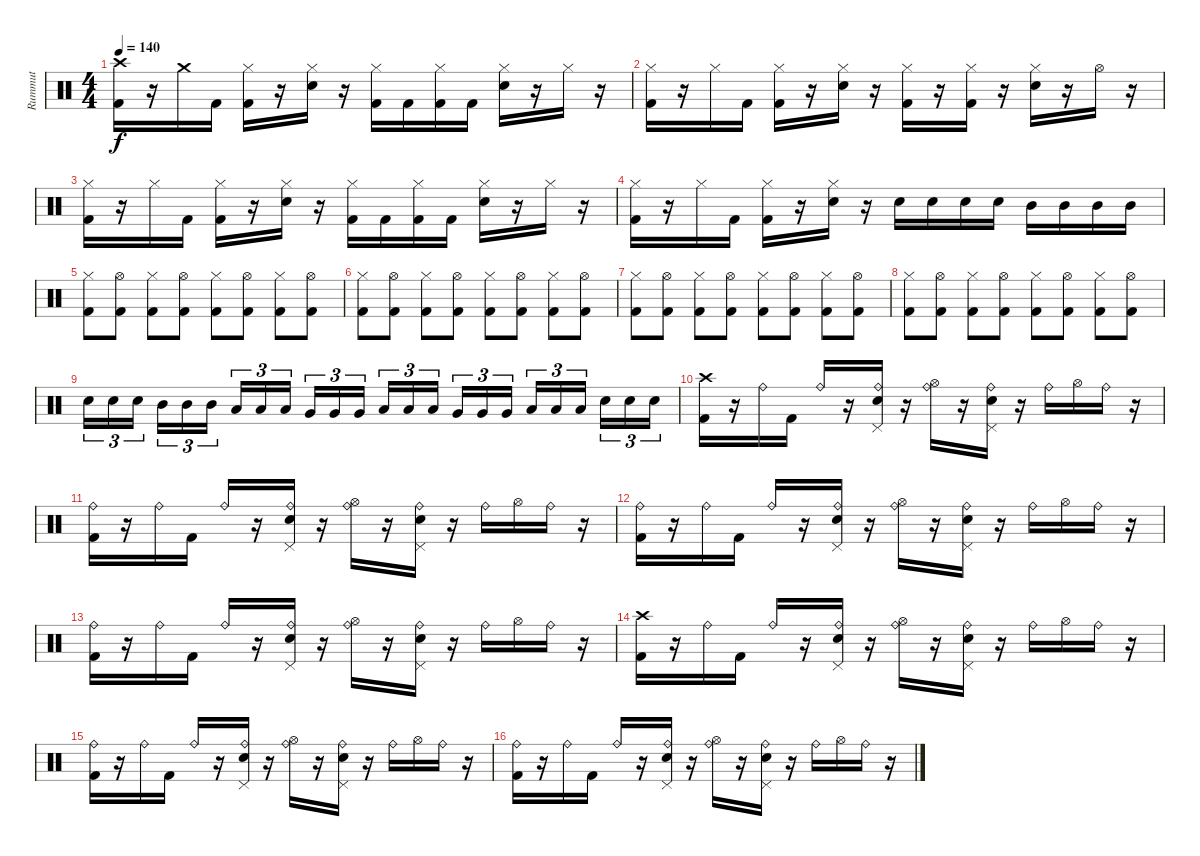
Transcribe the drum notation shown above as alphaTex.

\track ("Rummut" "Rummut") {instrument percussion}
\staff {score}
\articulation defaults
\ts (4 4)
\tempo 140
\clef neutral
\ks c
("Crash high (hit)" "Kick (hit) 2").16{dy f} r.16 "Crash medium (hit)".16 "Kick (hit) 2".16 ("Hi-Hat (closed)" "Kick (hit) 2").16 r.16 ("Hi-Hat (closed)" "Snare (hit) 2").16 r.16 ("Hi-Hat (closed)" "Kick (hit) 2").16 "Kick (hit) 2".16 ("Hi-Hat (closed)" "Kick (hit) 2").16 "Kick (hit) 2".16 ("Hi-Hat (closed)" "Snare (hit) 2").16 r.16 "Hi-Hat (closed)".16 r.16 |
("Hi-Hat (closed)" "Kick (hit) 2").16 r.16 "Hi-Hat (closed)".16 "Kick (hit) 2".16 ("Hi-Hat (closed)" "Kick (hit) 2").16 r.16 ("Hi-Hat (closed)" "Snare (hit) 2").16 r.16 ("Hi-Hat (closed)" "Kick (hit) 2").16 r.16 ("Hi-Hat (closed)" "Kick (hit) 2").16 r.16 ("Hi-Hat (closed)" "Snare (hit) 2").16 r.16 "Hi-Hat (open)".16 r.16 |
("Hi-Hat (closed)" "Kick (hit) 2").16 r.16 "Hi-Hat (closed)".16 "Kick (hit) 2".16 ("Hi-Hat (closed)" "Kick (hit) 2").16 r.16 ("Hi-Hat (closed)" "Snare (hit) 2").16 r.16 ("Hi-Hat (closed)" "Kick (hit) 2").16 "Kick (hit) 2".16 ("Hi-Hat (closed)" "Kick (hit) 2").16 "Kick (hit) 2".16 ("Hi-Hat (closed)" "Snare (hit) 2").16 r.16 "Hi-Hat (closed)".16 r.16 |
("Hi-Hat (closed)" "Kick (hit) 2").16 r.16 "Hi-Hat (closed)".16 "Kick (hit) 2".16 ("Hi-Hat (closed)" "Kick (hit) 2").16 r.16 ("Hi-Hat (closed)" "Snare (hit) 2").16 r.16 "Snare (hit) 2".16 "Snare (hit) 2".16 "Snare (hit) 2".16 "Snare (hit) 2".16 "Mid Tom (hit)".16 "Mid Tom (hit)".16 "Mid Tom (hit)".16 "Mid Tom (hit)".16 |
("Hi-Hat (closed)" "Kick (hit) 2").8 ("Hi-Hat (open)" "Kick (hit) 2").8 ("Hi-Hat (closed)" "Kick (hit) 2").8 ("Hi-Hat (open)" "Kick (hit) 2").8 ("Hi-Hat (closed)" "Kick (hit) 2").8 ("Hi-Hat (open)" "Kick (hit) 2").8 ("Hi-Hat (closed)" "Kick (hit) 2").8 ("Hi-Hat (open)" "Kick (hit) 2").8 |
("Hi-Hat (closed)" "Kick (hit) 2").8 ("Hi-Hat (open)" "Kick (hit) 2").8 ("Hi-Hat (closed)" "Kick (hit) 2").8 ("Hi-Hat (open)" "Kick (hit) 2").8 ("Hi-Hat (closed)" "Kick (hit) 2").8 ("Hi-Hat (open)" "Kick (hit) 2").8 ("Hi-Hat (closed)" "Kick (hit) 2").8 ("Hi-Hat (open)" "Kick (hit) 2").8 |
("Hi-Hat (closed)" "Kick (hit) 2").8 ("Hi-Hat (open)" "Kick (hit) 2").8 ("Hi-Hat (closed)" "Kick (hit) 2").8 ("Hi-Hat (open)" "Kick (hit) 2").8 ("Hi-Hat (closed)" "Kick (hit) 2").8 ("Hi-Hat (open)" "Kick (hit) 2").8 ("Hi-Hat (closed)" "Kick (hit) 2").8 ("Hi-Hat (open)" "Kick (hit) 2").8 |
("Hi-Hat (closed)" "Kick (hit) 2").8 ("Hi-Hat (open)" "Kick (hit) 2").8 ("Hi-Hat (closed)" "Kick (hit) 2").8 ("Hi-Hat (open)" "Kick (hit) 2").8 ("Hi-Hat (closed)" "Kick (hit) 2").8 ("Hi-Hat (open)" "Kick (hit) 2").8 ("Hi-Hat (closed)" "Kick (hit) 2").8 ("Hi-Hat (open)" "Kick (hit) 2").8 |
"Snare (hit) 2".16{tu (3 2)} "Snare (hit) 2".16{tu (3 2)} "Snare (hit) 2".16{tu (3 2)} "Mid Tom (hit)".16{tu (3 2)} "Mid Tom (hit)".16{tu (3 2)} "Mid Tom (hit)".16{tu (3 2)} "Low Tom (hit)".16{tu (3 2)} "Low Tom (hit)".16{tu (3 2)} "Low Tom (hit)".16{tu (3 2)} "Very Low Tom (hit)".16{tu (3 2)} "Very Low Tom (hit)".16{tu (3 2)} "Very Low Tom (hit)".16{tu (3 2)} "Low Floor Tom (hit)".16{tu (3 2)} "Low Floor Tom (hit)".16{tu (3 2)} "Low Floor Tom (hit)".16{tu (3 2)} "Very Low Tom (hit)".16{tu (3 2)} "Very Low Tom (hit)".16{tu (3 2)} "Very Low Tom (hit)".16{tu (3 2)} "Low Floor Tom (hit)".16{tu (3 2)} "Low Floor Tom (hit)".16{tu (3 2)} "Low Floor Tom (hit)".16{tu (3 2)} "Snare (hit) 2".16{tu (3 2)} "Snare (hit) 2".16{tu (3 2)} "Snare (hit) 2".16{tu (3 2)} |
("Crash high (hit)" "Kick (hit) 2").16 r.16 "Ride (bell)".16 "Kick (hit) 2".16 "Ride (bell)".16 r.16 ("Ride (bell)" "Snare (hit) 2" "Pedal Hi-Hat (hit)").16 r.16 ("Ride (bell)" "Hi-Hat (open)").16 r.16 ("Ride (bell)" "Snare (hit) 2" "Pedal Hi-Hat (hit)").16 r.16 "Ride (bell)".16 "Hi-Hat (open)".16 "Ride (bell)".16 r.16 |
("Ride (bell)" "Kick (hit) 2").16 r.16 "Ride (bell)".16 "Kick (hit) 2".16 "Ride (bell)".16 r.16 ("Ride (bell)" "Snare (hit) 2" "Pedal Hi-Hat (hit)").16 r.16 ("Ride (bell)" "Hi-Hat (open)").16 r.16 ("Ride (bell)" "Snare (hit) 2" "Pedal Hi-Hat (hit)").16 r.16 "Ride (bell)".16 "Hi-Hat (open)".16 "Ride (bell)".16 r.16 |
("Ride (bell)" "Kick (hit) 2").16 r.16 "Ride (bell)".16 "Kick (hit) 2".16 "Ride (bell)".16 r.16 ("Ride (bell)" "Snare (hit) 2" "Pedal Hi-Hat (hit)").16 r.16 ("Ride (bell)" "Hi-Hat (open)").16 r.16 ("Ride (bell)" "Snare (hit) 2" "Pedal Hi-Hat (hit)").16 r.16 "Ride (bell)".16 "Hi-Hat (open)".16 "Ride (bell)".16 r.16 |
("Ride (bell)" "Kick (hit) 2").16 r.16 "Ride (bell)".16 "Kick (hit) 2".16 "Ride (bell)".16 r.16 ("Ride (bell)" "Snare (hit) 2" "Pedal Hi-Hat (hit)").16 r.16 ("Ride (bell)" "Hi-Hat (open)").16 r.16 ("Ride (bell)" "Snare (hit) 2" "Pedal Hi-Hat (hit)").16 r.16 "Ride (bell)".16 "Hi-Hat (open)".16 "Ride (bell)".16 r.16 |
("Crash high (hit)" "Kick (hit) 2").16 r.16 "Ride (bell)".16 "Kick (hit) 2".16 "Ride (bell)".16 r.16 ("Ride (bell)" "Snare (hit) 2" "Pedal Hi-Hat (hit)").16 r.16 ("Ride (bell)" "Hi-Hat (open)").16 r.16 ("Ride (bell)" "Snare (hit) 2" "Pedal Hi-Hat (hit)").16 r.16 "Ride (bell)".16 "Hi-Hat (open)".16 "Ride (bell)".16 r.16 |
("Ride (bell)" "Kick (hit) 2").16 r.16 "Ride (bell)".16 "Kick (hit) 2".16 "Ride (bell)".16 r.16 ("Ride (bell)" "Snare (hit) 2" "Pedal Hi-Hat (hit)").16 r.16 ("Ride (bell)" "Hi-Hat (open)").16 r.16 ("Ride (bell)" "Snare (hit) 2" "Pedal Hi-Hat (hit)").16 r.16 "Ride (bell)".16 "Hi-Hat (open)".16 "Ride (bell)".16 r.16 |
("Ride (bell)" "Kick (hit) 2").16 r.16 "Ride (bell)".16 "Kick (hit) 2".16 "Ride (bell)".16 r.16 ("Ride (bell)" "Snare (hit) 2" "Pedal Hi-Hat (hit)").16 r.16 ("Ride (bell)" "Hi-Hat (open)").16 r.16 ("Ride (bell)" "Snare (hit) 2" "Pedal Hi-Hat (hit)").16 r.16 "Ride (bell)".16 "Hi-Hat (open)".16 "Ride (bell)".16 r.16
